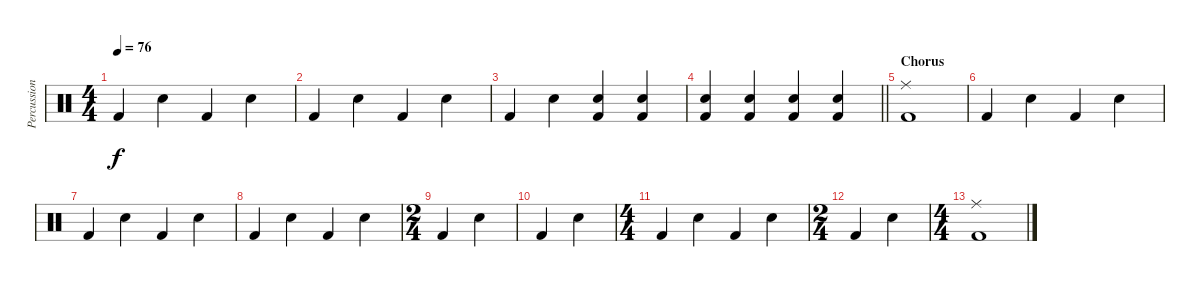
\track ("Percussion" "Percussion") {instrument percussion}
\staff {score}
\articulation defaults
\ts (4 4)
\tempo 76
\clef neutral
\ks c "Kick (hit) 2".4{dy f} "Snare (hit) 2".4 "Kick (hit) 2".4 "Snare (hit) 2".4
|
"Kick (hit) 2".4 "Snare (hit) 2".4 "Kick (hit) 2".4 "Snare (hit) 2".4 |
"Kick (hit) 2".4 "Snare (hit) 2".4 ("Snare (hit) 2" "Kick (hit) 2").4 ("Snare (hit) 2" "Kick (hit) 2").4 |
\barLineRight lightlight
("Snare (hit) 2" "Kick (hit) 2").4 ("Snare (hit) 2" "Kick (hit) 2").4 ("Snare (hit) 2" "Kick (hit) 2").4 ("Snare (hit) 2" "Kick (hit) 2").4 |
\section ("" "Chorus")
("Ride (middle)" "Kick (hit) 2").1 |
"Kick (hit) 2".4 "Snare (hit) 2".4 "Kick (hit) 2".4 "Snare (hit) 2".4 |
"Kick (hit) 2".4 "Snare (hit) 2".4 "Kick (hit) 2".4 "Snare (hit) 2".4 |
"Kick (hit) 2".4 "Snare (hit) 2".4 "Kick (hit) 2".4 "Snare (hit) 2".4 |
\ts (2 4)
"Kick (hit) 2".4 "Snare (hit) 2".4 |
"Kick (hit) 2".4 "Snare (hit) 2".4 |
\ts (4 4)
"Kick (hit) 2".4 "Snare (hit) 2".4 "Kick (hit) 2".4 "Snare (hit) 2".4 |
\ts (2 4)
"Kick (hit) 2".4 "Snare (hit) 2".4 |
\ts (4 4)
("Ride (middle)" "Kick (hit) 2").1
